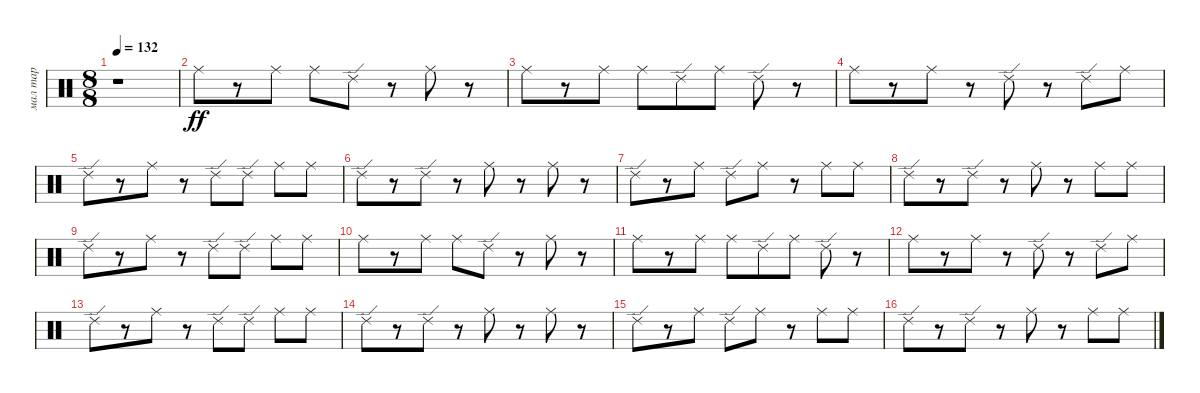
\track ("мал тар" "мал тар") {instrument percussion}
\staff {score}
\articulation defaults
\ts (8 8)
\tempo 132
\clef neutral
\ks c
r.1{dy ff} |
"Ride (middle)".8 r.8 "Ride (middle)".8 "Ride (middle)".8 "Ride (edge) 2".8 r.8 "Ride (middle)".8 r.8 |
"Ride (middle)".8 r.8 "Ride (middle)".8 "Ride (middle)".8 "Ride (edge) 2".8 "Ride (middle)".8 "Ride (edge) 2".8 r.8 |
"Ride (middle)".8 r.8 "Ride (middle)".8 r.8 "Ride (edge) 2".8 r.8 "Ride (edge) 2".8 "Ride (middle)".8 |
"Ride (edge) 2".8 r.8 "Ride (middle)".8 r.8 "Ride (edge) 2".8 "Ride (edge) 2".8 "Ride (middle)".8 "Ride (middle)".8 |
"Ride (edge) 2".8 r.8 "Ride (edge) 2".8 r.8 "Ride (middle)".8 r.8 "Ride (middle)".8 r.8 |
"Ride (edge) 2".8 r.8 "Ride (middle)".8 "Ride (edge) 2".8 "Ride (middle)".8 r.8 "Ride (middle)".8 "Ride (middle)".8 |
"Ride (edge) 2".8 r.8 "Ride (edge) 2".8 r.8 "Ride (middle)".8 r.8 "Ride (middle)".8 "Ride (middle)".8 |
"Ride (edge) 2".8 r.8 "Ride (middle)".8 r.8 "Ride (edge) 2".8 "Ride (edge) 2".8 "Ride (middle)".8 "Ride (middle)".8 |
"Ride (middle)".8 r.8 "Ride (middle)".8 "Ride (middle)".8 "Ride (edge) 2".8 r.8 "Ride (middle)".8 r.8 |
"Ride (middle)".8 r.8 "Ride (middle)".8 "Ride (middle)".8 "Ride (edge) 2".8 "Ride (middle)".8 "Ride (edge) 2".8 r.8 |
"Ride (middle)".8 r.8 "Ride (middle)".8 r.8 "Ride (edge) 2".8 r.8 "Ride (edge) 2".8 "Ride (middle)".8 |
"Ride (edge) 2".8 r.8 "Ride (middle)".8 r.8 "Ride (edge) 2".8 "Ride (edge) 2".8 "Ride (middle)".8 "Ride (middle)".8 |
"Ride (edge) 2".8 r.8 "Ride (edge) 2".8 r.8 "Ride (middle)".8 r.8 "Ride (middle)".8 r.8 |
"Ride (edge) 2".8 r.8 "Ride (middle)".8 "Ride (edge) 2".8 "Ride (middle)".8 r.8 "Ride (middle)".8 "Ride (middle)".8 |
"Ride (edge) 2".8 r.8 "Ride (edge) 2".8 r.8 "Ride (middle)".8 r.8 "Ride (middle)".8 "Ride (middle)".8
